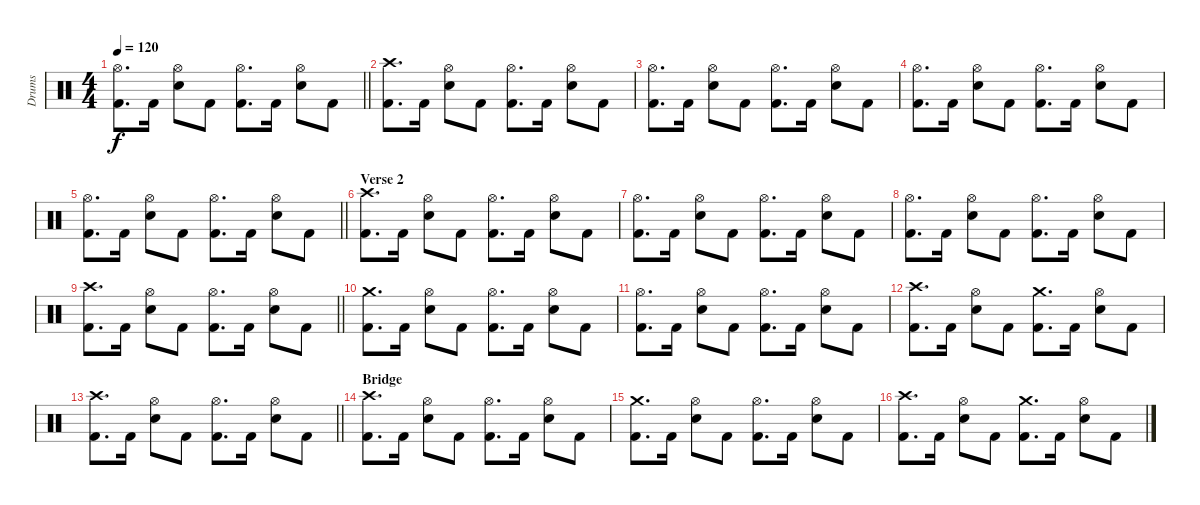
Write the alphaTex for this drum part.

\track ("Drums" "Drums") {instrument percussion}
\staff {score}
\articulation defaults
\ts (4 4)
\tempo 120
\clef neutral
\barLineRight lightlight
\ks c
("Hi-Hat (open)" "Kick (hit) 2").8{d dy f} "Kick (hit) 2".16 ("Hi-Hat (open)" "Snare (hit) 2").8 "Kick (hit) 2".8 ("Hi-Hat (open)" "Kick (hit) 2").8{d} "Kick (hit) 2".16 ("Hi-Hat (open)" "Snare (hit) 2").8 "Kick (hit) 2".8 |
("Crash high (hit)" "Kick (hit) 2").8{d} "Kick (hit) 2".16 ("Hi-Hat (open)" "Snare (hit) 2").8 "Kick (hit) 2".8 ("Hi-Hat (open)" "Kick (hit) 2").8{d} "Kick (hit) 2".16 ("Hi-Hat (open)" "Snare (hit) 2").8 "Kick (hit) 2".8 |
("Hi-Hat (open)" "Kick (hit) 2").8{d} "Kick (hit) 2".16 ("Hi-Hat (open)" "Snare (hit) 2").8 "Kick (hit) 2".8 ("Hi-Hat (open)" "Kick (hit) 2").8{d} "Kick (hit) 2".16 ("Hi-Hat (open)" "Snare (hit) 2").8 "Kick (hit) 2".8 |
("Hi-Hat (open)" "Kick (hit) 2").8{d} "Kick (hit) 2".16 ("Hi-Hat (open)" "Snare (hit) 2").8 "Kick (hit) 2".8 ("Hi-Hat (open)" "Kick (hit) 2").8{d} "Kick (hit) 2".16 ("Hi-Hat (open)" "Snare (hit) 2").8 "Kick (hit) 2".8 |
\barLineRight lightlight
("Hi-Hat (open)" "Kick (hit) 2").8{d} "Kick (hit) 2".16 ("Hi-Hat (open)" "Snare (hit) 2").8 "Kick (hit) 2".8 ("Hi-Hat (open)" "Kick (hit) 2").8{d} "Kick (hit) 2".16 ("Hi-Hat (open)" "Snare (hit) 2").8 "Kick (hit) 2".8 |
\section ("" "Verse 2")
("Crash high (hit)" "Kick (hit) 2").8{d} "Kick (hit) 2".16 ("Hi-Hat (open)" "Snare (hit) 2").8 "Kick (hit) 2".8 ("Hi-Hat (open)" "Kick (hit) 2").8{d} "Kick (hit) 2".16 ("Hi-Hat (open)" "Snare (hit) 2").8 "Kick (hit) 2".8 |
("Hi-Hat (open)" "Kick (hit) 2").8{d} "Kick (hit) 2".16 ("Hi-Hat (open)" "Snare (hit) 2").8 "Kick (hit) 2".8 ("Hi-Hat (open)" "Kick (hit) 2").8{d} "Kick (hit) 2".16 ("Hi-Hat (open)" "Snare (hit) 2").8 "Kick (hit) 2".8 |
("Hi-Hat (open)" "Kick (hit) 2").8{d} "Kick (hit) 2".16 ("Hi-Hat (open)" "Snare (hit) 2").8 "Kick (hit) 2".8 ("Hi-Hat (open)" "Kick (hit) 2").8{d} "Kick (hit) 2".16 ("Hi-Hat (open)" "Snare (hit) 2").8 "Kick (hit) 2".8 |
\barLineRight lightlight
("Crash high (hit)" "Kick (hit) 2").8{d} "Kick (hit) 2".16 ("Hi-Hat (open)" "Snare (hit) 2").8 "Kick (hit) 2".8 ("Hi-Hat (open)" "Kick (hit) 2").8{d} "Kick (hit) 2".16 ("Hi-Hat (open)" "Snare (hit) 2").8 "Kick (hit) 2".8 |
("Crash medium (hit)" "Kick (hit) 2").8{d} "Kick (hit) 2".16 ("Hi-Hat (open)" "Snare (hit) 2").8 "Kick (hit) 2".8 ("Hi-Hat (open)" "Kick (hit) 2").8{d} "Kick (hit) 2".16 ("Hi-Hat (open)" "Snare (hit) 2").8 "Kick (hit) 2".8 |
("Hi-Hat (open)" "Kick (hit) 2").8{d} "Kick (hit) 2".16 ("Hi-Hat (open)" "Snare (hit) 2").8 "Kick (hit) 2".8 ("Hi-Hat (open)" "Kick (hit) 2").8{d} "Kick (hit) 2".16 ("Hi-Hat (open)" "Snare (hit) 2").8 "Kick (hit) 2".8 |
("Crash high (hit)" "Kick (hit) 2").8{d} "Kick (hit) 2".16 ("Hi-Hat (open)" "Snare (hit) 2").8 "Kick (hit) 2".8 ("Crash medium (hit)" "Kick (hit) 2").8{d} "Kick (hit) 2".16 ("Hi-Hat (open)" "Snare (hit) 2").8 "Kick (hit) 2".8 |
\barLineRight lightlight
("Crash high (hit)" "Kick (hit) 2").8{d} "Kick (hit) 2".16 ("Hi-Hat (open)" "Snare (hit) 2").8 "Kick (hit) 2".8 ("Hi-Hat (open)" "Kick (hit) 2").8{d} "Kick (hit) 2".16 ("Hi-Hat (open)" "Snare (hit) 2").8 "Kick (hit) 2".8 |
\section ("" "Bridge")
("Crash high (hit)" "Kick (hit) 2").8{d} "Kick (hit) 2".16 ("Hi-Hat (open)" "Snare (hit) 2").8 "Kick (hit) 2".8 ("Hi-Hat (open)" "Kick (hit) 2").8{d} "Kick (hit) 2".16 ("Hi-Hat (open)" "Snare (hit) 2").8 "Kick (hit) 2".8 |
("Crash medium (hit)" "Kick (hit) 2").8{d} "Kick (hit) 2".16 ("Hi-Hat (open)" "Snare (hit) 2").8 "Kick (hit) 2".8 ("Hi-Hat (open)" "Kick (hit) 2").8{d} "Kick (hit) 2".16 ("Hi-Hat (open)" "Snare (hit) 2").8 "Kick (hit) 2".8 |
("Crash high (hit)" "Kick (hit) 2").8{d} "Kick (hit) 2".16 ("Hi-Hat (open)" "Snare (hit) 2").8 "Kick (hit) 2".8 ("Crash medium (hit)" "Kick (hit) 2").8{d} "Kick (hit) 2".16 ("Hi-Hat (open)" "Snare (hit) 2").8 "Kick (hit) 2".8
